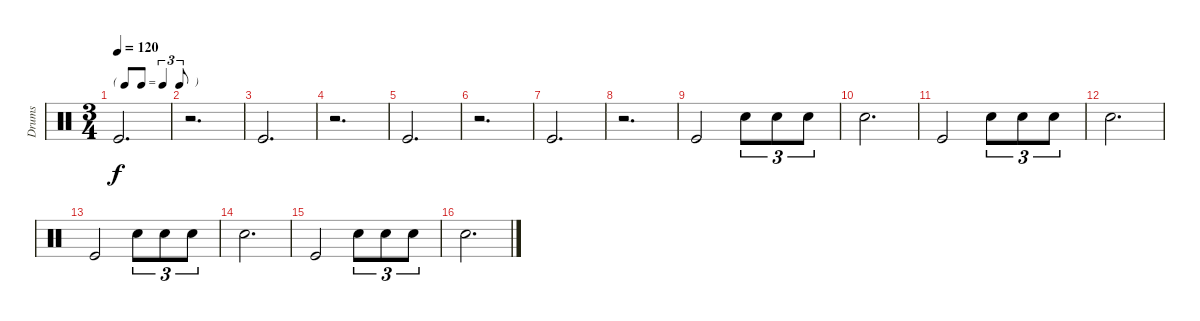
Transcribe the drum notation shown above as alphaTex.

\track ("Drums" "Drums") {instrument percussion}
\staff {score}
\articulation defaults
\ts (3 4)
\tf triplet8th
\tempo 120
\clef neutral
\ks c "Kick (hit)".2{d dy f}
|
r.2{d} |
"Kick (hit)".2{d} |
r.2{d} |
"Kick (hit)".2{d} |
r.2{d} |
"Kick (hit)".2{d} |
r.2{d} |
"Kick (hit)".2 "Snare (hit) 2".8{tu (3 2)} "Snare (hit) 2".8{tu (3 2)} "Snare (hit) 2".8{tu (3 2)} |
"Snare (hit) 2".2{d} |
"Kick (hit)".2 "Snare (hit) 2".8{tu (3 2)} "Snare (hit) 2".8{tu (3 2)} "Snare (hit) 2".8{tu (3 2)} |
"Snare (hit) 2".2{d} |
"Kick (hit)".2 "Snare (hit) 2".8{tu (3 2)} "Snare (hit) 2".8{tu (3 2)} "Snare (hit) 2".8{tu (3 2)} |
"Snare (hit) 2".2{d} |
"Kick (hit)".2 "Snare (hit) 2".8{tu (3 2)} "Snare (hit) 2".8{tu (3 2)} "Snare (hit) 2".8{tu (3 2)} |
"Snare (hit) 2".2{d}
